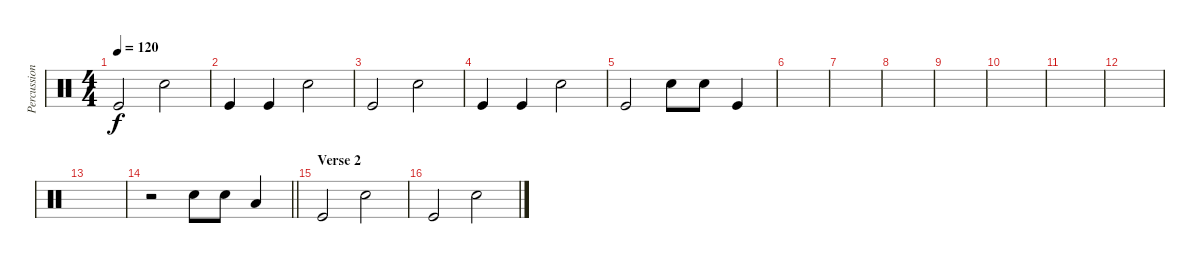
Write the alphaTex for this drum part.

\track ("Percussion" "Percussion") {instrument percussion}
\staff {score}
\articulation defaults
\ts (4 4)
\tempo 120
\clef neutral
\ks c "Kick (hit)".2{dy f} "Snare (hit) 2".2
|
"Kick (hit)".4 "Kick (hit)".4 "Snare (hit) 2".2 |
"Kick (hit)".2 "Snare (hit) 2".2 |
"Kick (hit)".4 "Kick (hit)".4 "Snare (hit) 2".2 |
"Kick (hit)".2 "Snare (hit) 2".8 "Snare (hit) 2".8 "Kick (hit)".4 |
|
|
|
|
|
|
|
|
\barLineRight lightlight
r.2 "Snare (hit) 2".8 "Snare (hit) 2".8 "Low Tom (hit)".4 |
\section ("" "Verse 2")
"Kick (hit)".2 "Snare (hit) 2".2 |
"Kick (hit)".2 "Snare (hit) 2".2
